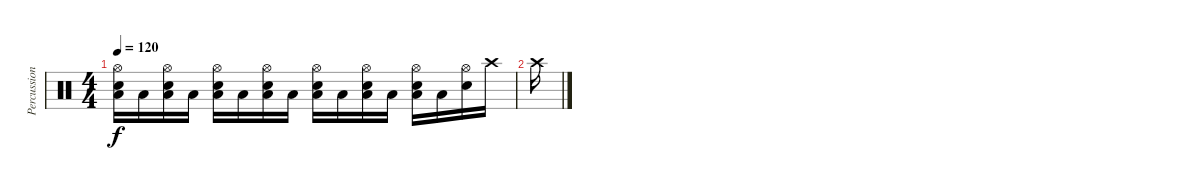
\track ("Percussions" "Percussion") {instrument percussion}
\staff {score}
\articulation defaults
\ts (4 4)
\tempo 120
\clef neutral
\ks c
("Hi-Hat (open)" "Low Tom (hit)" "Electric Snare (hit)").16{dy f} "Low Tom (hit)".16 ("Hi-Hat (open)" "Low Tom (hit)" "Electric Snare (hit)").16 "Low Tom (hit)".16 ("Hi-Hat (open)" "Low Tom (hit)" "Electric Snare (hit)").16 "Low Tom (hit)".16 ("Hi-Hat (open)" "Low Tom (hit)" "Electric Snare (hit)").16 "Low Tom (hit)".16 ("Hi-Hat (open)" "Low Tom (hit)" "Electric Snare (hit)").16 "Low Tom (hit)".16 ("Hi-Hat (open)" "Low Tom (hit)" "Electric Snare (hit)").16 "Low Tom (hit)".16 ("Hi-Hat (open)" "Low Tom (hit)" "Electric Snare (hit)").16 "Low Tom (hit)".16 ("Hi-Hat (open)" "Electric Snare (hit)").16 "Crash high (hit)".16 |
"Crash high (hit)".16
